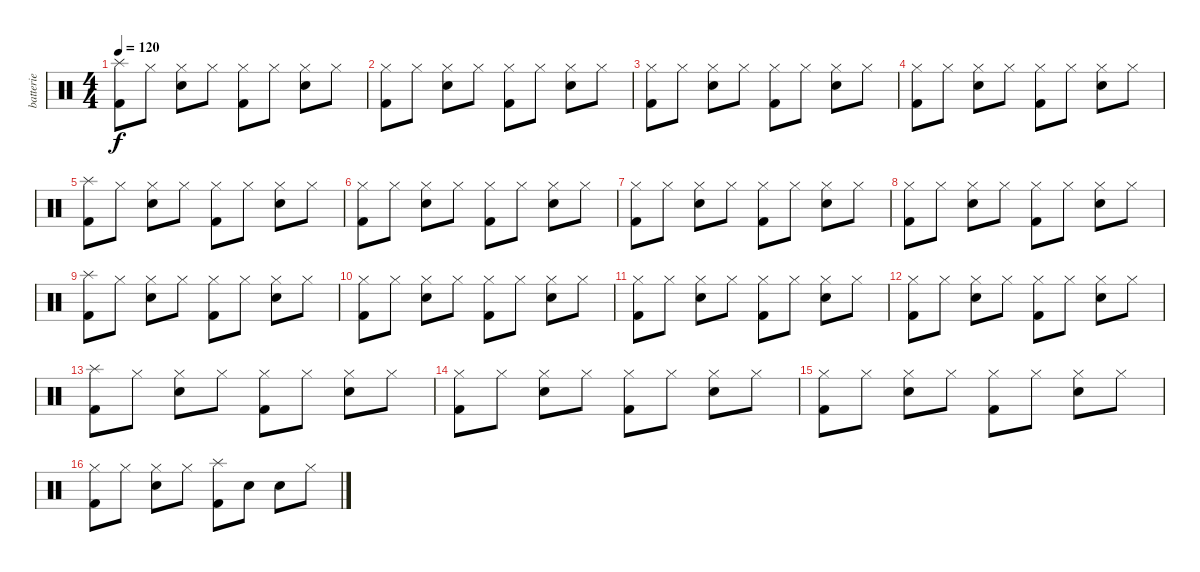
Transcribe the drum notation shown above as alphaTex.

\track ("batterie" "batterie") {instrument percussion}
\staff {score}
\articulation defaults
\ts (4 4)
\tempo 120
\clef neutral
\ks c
("Kick (hit) 2" "Splash (hit)").8{dy f} "Hi-Hat (closed)".8 ("Snare (hit) 2" "Hi-Hat (closed)").8 "Hi-Hat (closed)".8 ("Kick (hit) 2" "Hi-Hat (closed)").8 "Hi-Hat (closed)".8 ("Snare (hit) 2" "Hi-Hat (closed)").8 "Hi-Hat (closed)".8 |
("Kick (hit) 2" "Hi-Hat (closed)").8 "Hi-Hat (closed)".8 ("Snare (hit) 2" "Hi-Hat (closed)").8 "Hi-Hat (closed)".8 ("Kick (hit) 2" "Hi-Hat (closed)").8 "Hi-Hat (closed)".8 ("Snare (hit) 2" "Hi-Hat (closed)").8 "Hi-Hat (closed)".8 |
("Kick (hit) 2" "Hi-Hat (closed)").8 "Hi-Hat (closed)".8 ("Snare (hit) 2" "Hi-Hat (closed)").8 "Hi-Hat (closed)".8 ("Kick (hit) 2" "Hi-Hat (closed)").8 "Hi-Hat (closed)".8 ("Snare (hit) 2" "Hi-Hat (closed)").8 "Hi-Hat (closed)".8 |
("Kick (hit) 2" "Hi-Hat (closed)").8 "Hi-Hat (closed)".8 ("Snare (hit) 2" "Hi-Hat (closed)").8 "Hi-Hat (closed)".8 ("Kick (hit) 2" "Hi-Hat (closed)").8 "Hi-Hat (closed)".8 ("Snare (hit) 2" "Hi-Hat (closed)").8 "Hi-Hat (closed)".8 |
("Kick (hit) 2" "Splash (hit)").8 "Hi-Hat (closed)".8 ("Snare (hit) 2" "Hi-Hat (closed)").8 "Hi-Hat (closed)".8 ("Kick (hit) 2" "Hi-Hat (closed)").8 "Hi-Hat (closed)".8 ("Snare (hit) 2" "Hi-Hat (closed)").8 "Hi-Hat (closed)".8 |
("Kick (hit) 2" "Hi-Hat (closed)").8 "Hi-Hat (closed)".8 ("Snare (hit) 2" "Hi-Hat (closed)").8 "Hi-Hat (closed)".8 ("Kick (hit) 2" "Hi-Hat (closed)").8 "Hi-Hat (closed)".8 ("Snare (hit) 2" "Hi-Hat (closed)").8 "Hi-Hat (closed)".8 |
("Kick (hit) 2" "Hi-Hat (closed)").8 "Hi-Hat (closed)".8 ("Snare (hit) 2" "Hi-Hat (closed)").8 "Hi-Hat (closed)".8 ("Kick (hit) 2" "Hi-Hat (closed)").8 "Hi-Hat (closed)".8 ("Snare (hit) 2" "Hi-Hat (closed)").8 "Hi-Hat (closed)".8 |
("Kick (hit) 2" "Hi-Hat (closed)").8 "Hi-Hat (closed)".8 ("Snare (hit) 2" "Hi-Hat (closed)").8 "Hi-Hat (closed)".8 ("Kick (hit) 2" "Hi-Hat (closed)").8 "Hi-Hat (closed)".8 ("Snare (hit) 2" "Hi-Hat (closed)").8 "Hi-Hat (closed)".8 |
("Kick (hit) 2" "Splash (hit)").8 "Hi-Hat (closed)".8 ("Snare (hit) 2" "Hi-Hat (closed)").8 "Hi-Hat (closed)".8 ("Kick (hit) 2" "Hi-Hat (closed)").8 "Hi-Hat (closed)".8 ("Snare (hit) 2" "Hi-Hat (closed)").8 "Hi-Hat (closed)".8 |
("Kick (hit) 2" "Hi-Hat (closed)").8 "Hi-Hat (closed)".8 ("Snare (hit) 2" "Hi-Hat (closed)").8 "Hi-Hat (closed)".8 ("Kick (hit) 2" "Hi-Hat (closed)").8 "Hi-Hat (closed)".8 ("Snare (hit) 2" "Hi-Hat (closed)").8 "Hi-Hat (closed)".8 |
("Kick (hit) 2" "Hi-Hat (closed)").8 "Hi-Hat (closed)".8 ("Snare (hit) 2" "Hi-Hat (closed)").8 "Hi-Hat (closed)".8 ("Kick (hit) 2" "Hi-Hat (closed)").8 "Hi-Hat (closed)".8 ("Snare (hit) 2" "Hi-Hat (closed)").8 "Hi-Hat (closed)".8 |
("Kick (hit) 2" "Hi-Hat (closed)").8 "Hi-Hat (closed)".8 ("Snare (hit) 2" "Hi-Hat (closed)").8 "Hi-Hat (closed)".8 ("Kick (hit) 2" "Hi-Hat (closed)").8 "Hi-Hat (closed)".8 ("Snare (hit) 2" "Hi-Hat (closed)").8 "Hi-Hat (closed)".8 |
("Kick (hit) 2" "Splash (hit)").8 "Hi-Hat (closed)".8 ("Snare (hit) 2" "Hi-Hat (closed)").8 "Hi-Hat (closed)".8 ("Kick (hit) 2" "Hi-Hat (closed)").8 "Hi-Hat (closed)".8 ("Snare (hit) 2" "Hi-Hat (closed)").8 "Hi-Hat (closed)".8 |
("Kick (hit) 2" "Hi-Hat (closed)").8 "Hi-Hat (closed)".8 ("Snare (hit) 2" "Hi-Hat (closed)").8 "Hi-Hat (closed)".8 ("Kick (hit) 2" "Hi-Hat (closed)").8 "Hi-Hat (closed)".8 ("Snare (hit) 2" "Hi-Hat (closed)").8 "Hi-Hat (closed)".8 |
("Kick (hit) 2" "Hi-Hat (closed)").8 "Hi-Hat (closed)".8 ("Snare (hit) 2" "Hi-Hat (closed)").8 "Hi-Hat (closed)".8 ("Kick (hit) 2" "Hi-Hat (closed)").8 "Hi-Hat (closed)".8 ("Snare (hit) 2" "Hi-Hat (closed)").8 "Hi-Hat (closed)".8 |
("Kick (hit) 2" "Hi-Hat (closed)").8 "Hi-Hat (closed)".8 ("Snare (hit) 2" "Hi-Hat (closed)").8 "Hi-Hat (closed)".8 ("Kick (hit) 2" "Splash (hit)").8 "Snare (hit) 2".8 "Snare (hit) 2".8 "Hi-Hat (closed)".8
